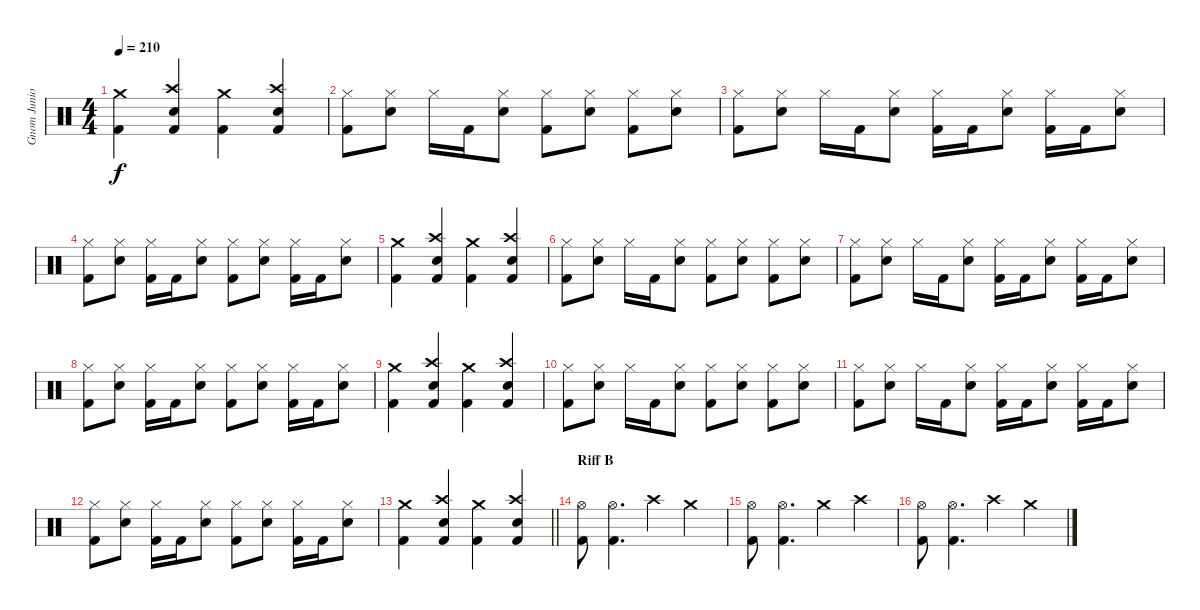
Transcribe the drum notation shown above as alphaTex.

\track ("Gnom Junior" "Gnom Junio") {instrument percussion}
\staff {score}
\articulation defaults
\ts (4 4)
\tempo 210
\clef neutral
\ks c
("Crash medium (hit)" "Kick (hit) 2").4{dy f} ("Crash high (hit)" "Electric Snare (hit)" "Kick (hit) 2").4 ("Crash medium (hit)" "Kick (hit) 2").4 ("Crash high (hit)" "Electric Snare (hit)" "Kick (hit) 2").4 |
("Hi-Hat (closed)" "Kick (hit) 2").8 ("Hi-Hat (closed)" "Electric Snare (hit)").8 "Hi-Hat (closed)".16 "Kick (hit) 2".16 ("Hi-Hat (closed)" "Electric Snare (hit)").8 ("Hi-Hat (closed)" "Kick (hit) 2").8 ("Hi-Hat (closed)" "Electric Snare (hit)").8 ("Hi-Hat (closed)" "Kick (hit) 2").8 ("Hi-Hat (closed)" "Electric Snare (hit)").8 |
("Hi-Hat (closed)" "Kick (hit) 2").8 ("Hi-Hat (closed)" "Electric Snare (hit)").8 "Hi-Hat (closed)".16 "Kick (hit) 2".16 ("Hi-Hat (closed)" "Electric Snare (hit)").8 ("Hi-Hat (closed)" "Kick (hit) 2").16 "Kick (hit) 2".16 ("Hi-Hat (closed)" "Electric Snare (hit)").8 ("Hi-Hat (closed)" "Kick (hit) 2").16 "Kick (hit) 2".16 ("Hi-Hat (closed)" "Electric Snare (hit)").8 |
("Hi-Hat (closed)" "Kick (hit) 2").8 ("Hi-Hat (closed)" "Electric Snare (hit)").8 ("Hi-Hat (closed)" "Kick (hit) 2").16 "Kick (hit) 2".16 ("Hi-Hat (closed)" "Electric Snare (hit)").8 ("Hi-Hat (closed)" "Kick (hit) 2").8 ("Hi-Hat (closed)" "Electric Snare (hit)").8 ("Hi-Hat (closed)" "Kick (hit) 2").16 "Kick (hit) 2".16 ("Hi-Hat (closed)" "Electric Snare (hit)").8 |
("Crash medium (hit)" "Kick (hit) 2").4 ("Crash high (hit)" "Electric Snare (hit)" "Kick (hit) 2").4 ("Crash medium (hit)" "Kick (hit) 2").4 ("Crash high (hit)" "Electric Snare (hit)" "Kick (hit) 2").4 |
("Hi-Hat (closed)" "Kick (hit) 2").8 ("Hi-Hat (closed)" "Electric Snare (hit)").8 "Hi-Hat (closed)".16 "Kick (hit) 2".16 ("Hi-Hat (closed)" "Electric Snare (hit)").8 ("Hi-Hat (closed)" "Kick (hit) 2").8 ("Hi-Hat (closed)" "Electric Snare (hit)").8 ("Hi-Hat (closed)" "Kick (hit) 2").8 ("Hi-Hat (closed)" "Electric Snare (hit)").8 |
("Hi-Hat (closed)" "Kick (hit) 2").8 ("Hi-Hat (closed)" "Electric Snare (hit)").8 "Hi-Hat (closed)".16 "Kick (hit) 2".16 ("Hi-Hat (closed)" "Electric Snare (hit)").8 ("Hi-Hat (closed)" "Kick (hit) 2").16 "Kick (hit) 2".16 ("Hi-Hat (closed)" "Electric Snare (hit)").8 ("Hi-Hat (closed)" "Kick (hit) 2").16 "Kick (hit) 2".16 ("Hi-Hat (closed)" "Electric Snare (hit)").8 |
("Hi-Hat (closed)" "Kick (hit) 2").8 ("Hi-Hat (closed)" "Electric Snare (hit)").8 ("Hi-Hat (closed)" "Kick (hit) 2").16 "Kick (hit) 2".16 ("Hi-Hat (closed)" "Electric Snare (hit)").8 ("Hi-Hat (closed)" "Kick (hit) 2").8 ("Hi-Hat (closed)" "Electric Snare (hit)").8 ("Hi-Hat (closed)" "Kick (hit) 2").16 "Kick (hit) 2".16 ("Hi-Hat (closed)" "Electric Snare (hit)").8 |
("Crash medium (hit)" "Kick (hit) 2").4 ("Crash high (hit)" "Electric Snare (hit)" "Kick (hit) 2").4 ("Crash medium (hit)" "Kick (hit) 2").4 ("Crash high (hit)" "Electric Snare (hit)" "Kick (hit) 2").4 |
("Hi-Hat (closed)" "Kick (hit) 2").8 ("Hi-Hat (closed)" "Electric Snare (hit)").8 "Hi-Hat (closed)".16 "Kick (hit) 2".16 ("Hi-Hat (closed)" "Electric Snare (hit)").8 ("Hi-Hat (closed)" "Kick (hit) 2").8 ("Hi-Hat (closed)" "Electric Snare (hit)").8 ("Hi-Hat (closed)" "Kick (hit) 2").8 ("Hi-Hat (closed)" "Electric Snare (hit)").8 |
("Hi-Hat (closed)" "Kick (hit) 2").8 ("Hi-Hat (closed)" "Electric Snare (hit)").8 "Hi-Hat (closed)".16 "Kick (hit) 2".16 ("Hi-Hat (closed)" "Electric Snare (hit)").8 ("Hi-Hat (closed)" "Kick (hit) 2").16 "Kick (hit) 2".16 ("Hi-Hat (closed)" "Electric Snare (hit)").8 ("Hi-Hat (closed)" "Kick (hit) 2").16 "Kick (hit) 2".16 ("Hi-Hat (closed)" "Electric Snare (hit)").8 |
("Hi-Hat (closed)" "Kick (hit) 2").8 ("Hi-Hat (closed)" "Electric Snare (hit)").8 ("Hi-Hat (closed)" "Kick (hit) 2").16 "Kick (hit) 2".16 ("Hi-Hat (closed)" "Electric Snare (hit)").8 ("Hi-Hat (closed)" "Kick (hit) 2").8 ("Hi-Hat (closed)" "Electric Snare (hit)").8 ("Hi-Hat (closed)" "Kick (hit) 2").16 "Kick (hit) 2".16 ("Hi-Hat (closed)" "Electric Snare (hit)").8 |
\barLineRight lightlight
("Crash medium (hit)" "Kick (hit) 2").4 ("Crash high (hit)" "Electric Snare (hit)" "Kick (hit) 2").4 ("Crash medium (hit)" "Kick (hit) 2").4 ("Crash high (hit)" "Electric Snare (hit)" "Kick (hit) 2").4 |
\section ("" "Riff B")
("Hi-Hat (open)" "Kick (hit) 2").8 ("Hi-Hat (open)" "Kick (hit) 2").4{d} "Crash high (hit)".4 "Crash medium (hit)".4 |
("Hi-Hat (open)" "Kick (hit) 2").8 ("Hi-Hat (open)" "Kick (hit) 2").4{d} "Crash medium (hit)".4 "Crash high (hit)".4 |
("Hi-Hat (open)" "Kick (hit) 2").8 ("Hi-Hat (open)" "Kick (hit) 2").4{d} "Crash high (hit)".4 "Crash medium (hit)".4
